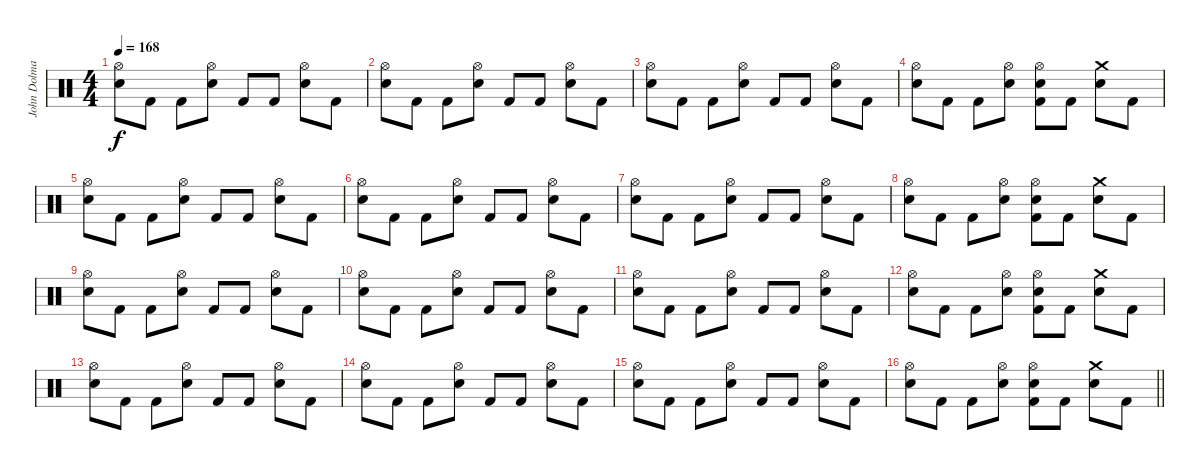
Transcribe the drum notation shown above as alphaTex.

\track ("John Dolmayan" "John Dolma") {instrument percussion}
\staff {score}
\articulation defaults
\ts (4 4)
\tempo 168
\clef neutral
\ks c
("Hi-Hat (open)" "Electric Snare (hit)").8{dy f} "Kick (hit) 2".8 "Kick (hit) 2".8 ("Hi-Hat (open)" "Electric Snare (hit)").8 "Kick (hit) 2".8 "Kick (hit) 2".8 ("Hi-Hat (open)" "Electric Snare (hit)").8 "Kick (hit) 2".8 |
("Hi-Hat (open)" "Electric Snare (hit)").8 "Kick (hit) 2".8 "Kick (hit) 2".8 ("Hi-Hat (open)" "Electric Snare (hit)").8 "Kick (hit) 2".8 "Kick (hit) 2".8 ("Hi-Hat (open)" "Electric Snare (hit)").8 "Kick (hit) 2".8 |
("Hi-Hat (open)" "Electric Snare (hit)").8 "Kick (hit) 2".8 "Kick (hit) 2".8 ("Hi-Hat (open)" "Electric Snare (hit)").8 "Kick (hit) 2".8 "Kick (hit) 2".8 ("Hi-Hat (open)" "Electric Snare (hit)").8 "Kick (hit) 2".8 |
("Hi-Hat (open)" "Electric Snare (hit)").8 "Kick (hit) 2".8 "Kick (hit) 2".8 ("Hi-Hat (open)" "Electric Snare (hit)").8 ("Hi-Hat (open)" "Electric Snare (hit)" "Kick (hit) 2").8 "Kick (hit) 2".8 ("Crash medium (hit)" "Electric Snare (hit)").8 "Kick (hit) 2".8 |
("Hi-Hat (open)" "Electric Snare (hit)").8 "Kick (hit) 2".8 "Kick (hit) 2".8 ("Hi-Hat (open)" "Electric Snare (hit)").8 "Kick (hit) 2".8 "Kick (hit) 2".8 ("Hi-Hat (open)" "Electric Snare (hit)").8 "Kick (hit) 2".8 |
("Hi-Hat (open)" "Electric Snare (hit)").8 "Kick (hit) 2".8 "Kick (hit) 2".8 ("Hi-Hat (open)" "Electric Snare (hit)").8 "Kick (hit) 2".8 "Kick (hit) 2".8 ("Hi-Hat (open)" "Electric Snare (hit)").8 "Kick (hit) 2".8 |
("Hi-Hat (open)" "Electric Snare (hit)").8 "Kick (hit) 2".8 "Kick (hit) 2".8 ("Hi-Hat (open)" "Electric Snare (hit)").8 "Kick (hit) 2".8 "Kick (hit) 2".8 ("Hi-Hat (open)" "Electric Snare (hit)").8 "Kick (hit) 2".8 |
("Hi-Hat (open)" "Electric Snare (hit)").8 "Kick (hit) 2".8 "Kick (hit) 2".8 ("Hi-Hat (open)" "Electric Snare (hit)").8 ("Hi-Hat (open)" "Electric Snare (hit)" "Kick (hit) 2").8 "Kick (hit) 2".8 ("Crash medium (hit)" "Electric Snare (hit)").8 "Kick (hit) 2".8 |
("Hi-Hat (open)" "Electric Snare (hit)").8 "Kick (hit) 2".8 "Kick (hit) 2".8 ("Hi-Hat (open)" "Electric Snare (hit)").8 "Kick (hit) 2".8 "Kick (hit) 2".8 ("Hi-Hat (open)" "Electric Snare (hit)").8 "Kick (hit) 2".8 |
("Hi-Hat (open)" "Electric Snare (hit)").8 "Kick (hit) 2".8 "Kick (hit) 2".8 ("Hi-Hat (open)" "Electric Snare (hit)").8 "Kick (hit) 2".8 "Kick (hit) 2".8 ("Hi-Hat (open)" "Electric Snare (hit)").8 "Kick (hit) 2".8 |
("Hi-Hat (open)" "Electric Snare (hit)").8 "Kick (hit) 2".8 "Kick (hit) 2".8 ("Hi-Hat (open)" "Electric Snare (hit)").8 "Kick (hit) 2".8 "Kick (hit) 2".8 ("Hi-Hat (open)" "Electric Snare (hit)").8 "Kick (hit) 2".8 |
("Hi-Hat (open)" "Electric Snare (hit)").8 "Kick (hit) 2".8 "Kick (hit) 2".8 ("Hi-Hat (open)" "Electric Snare (hit)").8 ("Hi-Hat (open)" "Electric Snare (hit)" "Kick (hit) 2").8 "Kick (hit) 2".8 ("Crash medium (hit)" "Electric Snare (hit)").8 "Kick (hit) 2".8 |
("Hi-Hat (open)" "Electric Snare (hit)").8 "Kick (hit) 2".8 "Kick (hit) 2".8 ("Hi-Hat (open)" "Electric Snare (hit)").8 "Kick (hit) 2".8 "Kick (hit) 2".8 ("Hi-Hat (open)" "Electric Snare (hit)").8 "Kick (hit) 2".8 |
("Hi-Hat (open)" "Electric Snare (hit)").8 "Kick (hit) 2".8 "Kick (hit) 2".8 ("Hi-Hat (open)" "Electric Snare (hit)").8 "Kick (hit) 2".8 "Kick (hit) 2".8 ("Hi-Hat (open)" "Electric Snare (hit)").8 "Kick (hit) 2".8 |
("Hi-Hat (open)" "Electric Snare (hit)").8 "Kick (hit) 2".8 "Kick (hit) 2".8 ("Hi-Hat (open)" "Electric Snare (hit)").8 "Kick (hit) 2".8 "Kick (hit) 2".8 ("Hi-Hat (open)" "Electric Snare (hit)").8 "Kick (hit) 2".8 |
\barLineRight lightlight
("Hi-Hat (open)" "Electric Snare (hit)").8 "Kick (hit) 2".8 "Kick (hit) 2".8 ("Hi-Hat (open)" "Electric Snare (hit)").8 ("Hi-Hat (open)" "Electric Snare (hit)" "Kick (hit) 2").8 "Kick (hit) 2".8 ("Crash medium (hit)" "Electric Snare (hit)").8 "Kick (hit) 2".8
